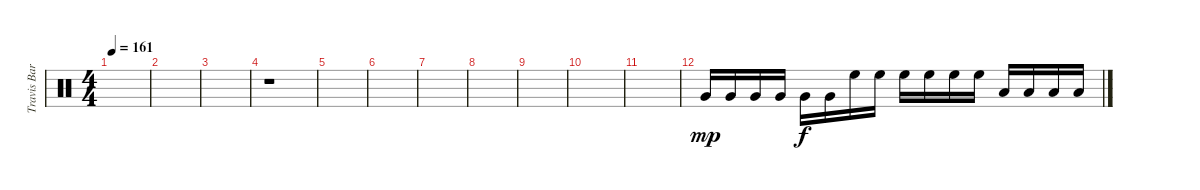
\track ("Travis Barker - Overdubbed Drums" "Travis Bar") {instrument percussion}
\staff {score}
\articulation defaults
\ts (4 4)
\tempo 161
\clef neutral
\ks c
|
|
|
r.1 |
|
|
|
|
|
|
|
"Very Low Tom (hit)".16{dy mp} "Very Low Tom (hit)".16 "Very Low Tom (hit)".16 "Very Low Tom (hit)".16 "Very Low Tom (hit)".16{dy f} "Very Low Tom (hit)".16 "High Floor Tom (hit)".16 "High Floor Tom (hit)".16 "High Floor Tom (hit)".16 "High Floor Tom (hit)".16 "High Floor Tom (hit)".16 "High Floor Tom (hit)".16 "Low Floor Tom (hit)".16 "Low Floor Tom (hit)".16 "Low Floor Tom (hit)".16 "Low Floor Tom (hit)".16
